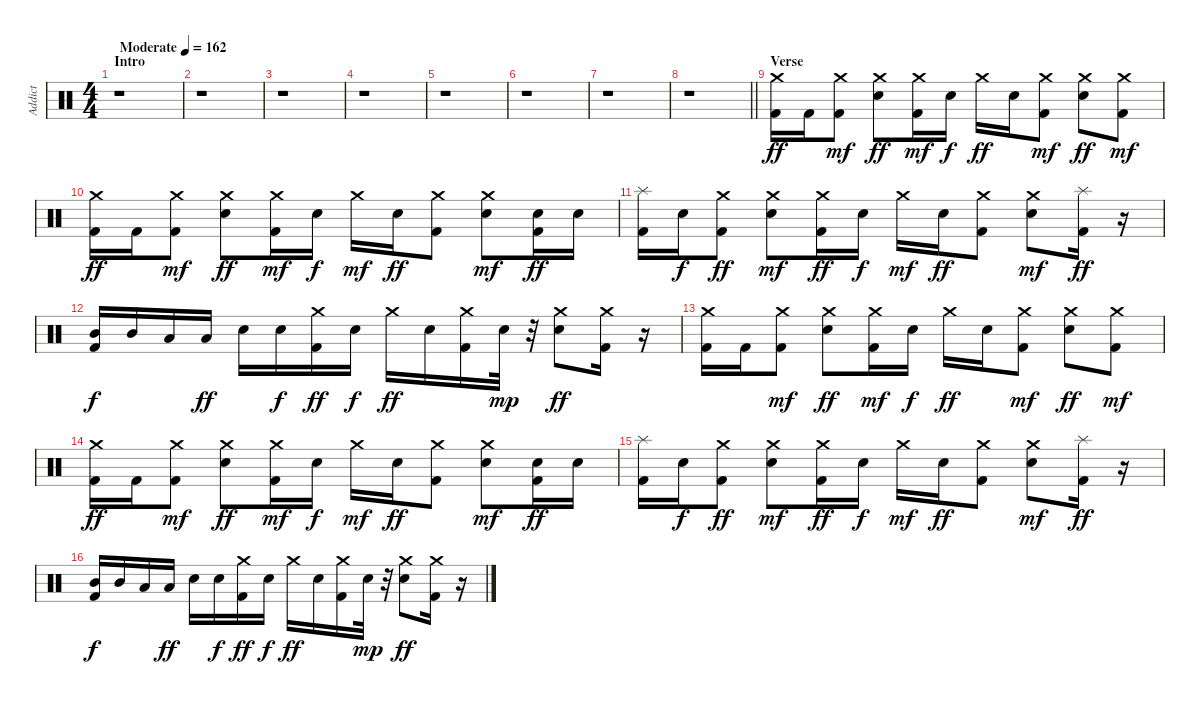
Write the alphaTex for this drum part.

\track ("Addict" "Addict") {instrument percussion}
\staff {score}
\articulation defaults
\ts (4 4)
\section ("" "Intro")
\tempo (162 "Moderate")
\clef neutral
\ks c
r.1{dy ff} |
r.1 |
r.1 |
r.1 |
r.1 |
r.1 |
r.1 |
\barLineRight lightlight
r.1 |
\section ("" "Verse")
("Kick (hit) 2" "Crash medium (hit)").16 "Kick (hit) 2".16 ("Kick (hit) 2" "Crash medium (hit)").8{dy mf} ("Snare (hit) 2" "Crash medium (hit)").8{dy ff} ("Kick (hit) 2" "Crash medium (hit)").16{dy mf} "Snare (hit) 2".16{dy f} "Crash medium (hit)".16{dy ff} "Snare (hit) 2".16 ("Kick (hit) 2" "Crash medium (hit)").8{dy mf} ("Snare (hit) 2" "Crash medium (hit)").8{dy ff} ("Kick (hit) 2" "Crash medium (hit)").8{dy mf} |
("Kick (hit) 2" "Crash medium (hit)").16{dy ff} "Kick (hit) 2".16 ("Kick (hit) 2" "Crash medium (hit)").8{dy mf} ("Snare (hit) 2" "Crash medium (hit)").8{dy ff} ("Kick (hit) 2" "Crash medium (hit)").16{dy mf} "Snare (hit) 2".16{dy f} "Crash medium (hit)".16{dy mf} "Snare (hit) 2".16{dy ff} ("Kick (hit) 2" "Crash medium (hit)").8 ("Snare (hit) 2" "Crash medium (hit)").8{dy mf} ("Kick (hit) 2" "Snare (hit) 2").16{dy ff} "Snare (hit) 2".16 |
("Kick (hit) 2" "Splash (hit)").16 "Snare (hit) 2".16{dy f} ("Kick (hit) 2" "Crash medium (hit)").8{dy ff} ("Snare (hit) 2" "Crash medium (hit)").8{dy mf} ("Kick (hit) 2" "Crash medium (hit)").16{dy ff} "Snare (hit) 2".16{dy f} "Crash medium (hit)".16{dy mf} "Snare (hit) 2".16{dy ff} ("Kick (hit) 2" "Crash medium (hit)").8 ("Snare (hit) 2" "Crash medium (hit)").8{dy mf} ("Kick (hit) 2" "Splash (hit)").16{dy ff} r.16 |
("Kick (hit) 2" "Mid Tom (hit)").16{dy f} "Mid Tom (hit)".16 "Low Tom (hit)".16 "Low Tom (hit)".16{dy ff} "Snare (hit) 2".16 "Snare (hit) 2".16{dy f} ("Kick (hit) 2" "Crash medium (hit)").16{dy ff} "Snare (hit) 2".16{dy f} "Crash medium (hit)".16{dy ff} "Snare (hit) 2".16 ("Kick (hit) 2" "Crash medium (hit)").16 "Snare (hit) 2".32{dy mp} r.32 ("Snare (hit) 2" "Crash medium (hit)").8{dy ff} ("Kick (hit) 2" "Crash medium (hit)").16 r.16 |
("Kick (hit) 2" "Crash medium (hit)").16 "Kick (hit) 2".16 ("Kick (hit) 2" "Crash medium (hit)").8{dy mf} ("Snare (hit) 2" "Crash medium (hit)").8{dy ff} ("Kick (hit) 2" "Crash medium (hit)").16{dy mf} "Snare (hit) 2".16{dy f} "Crash medium (hit)".16{dy ff} "Snare (hit) 2".16 ("Kick (hit) 2" "Crash medium (hit)").8{dy mf} ("Snare (hit) 2" "Crash medium (hit)").8{dy ff} ("Kick (hit) 2" "Crash medium (hit)").8{dy mf} |
("Kick (hit) 2" "Crash medium (hit)").16{dy ff} "Kick (hit) 2".16 ("Kick (hit) 2" "Crash medium (hit)").8{dy mf} ("Snare (hit) 2" "Crash medium (hit)").8{dy ff} ("Kick (hit) 2" "Crash medium (hit)").16{dy mf} "Snare (hit) 2".16{dy f} "Crash medium (hit)".16{dy mf} "Snare (hit) 2".16{dy ff} ("Kick (hit) 2" "Crash medium (hit)").8 ("Snare (hit) 2" "Crash medium (hit)").8{dy mf} ("Kick (hit) 2" "Snare (hit) 2").16{dy ff} "Snare (hit) 2".16 |
("Kick (hit) 2" "Splash (hit)").16 "Snare (hit) 2".16{dy f} ("Kick (hit) 2" "Crash medium (hit)").8{dy ff} ("Snare (hit) 2" "Crash medium (hit)").8{dy mf} ("Kick (hit) 2" "Crash medium (hit)").16{dy ff} "Snare (hit) 2".16{dy f} "Crash medium (hit)".16{dy mf} "Snare (hit) 2".16{dy ff} ("Kick (hit) 2" "Crash medium (hit)").8 ("Snare (hit) 2" "Crash medium (hit)").8{dy mf} ("Kick (hit) 2" "Splash (hit)").16{dy ff} r.16 |
("Kick (hit) 2" "Mid Tom (hit)").16{dy f} "Mid Tom (hit)".16 "Low Tom (hit)".16 "Low Tom (hit)".16{dy ff} "Snare (hit) 2".16 "Snare (hit) 2".16{dy f} ("Kick (hit) 2" "Crash medium (hit)").16{dy ff} "Snare (hit) 2".16{dy f} "Crash medium (hit)".16{dy ff} "Snare (hit) 2".16 ("Kick (hit) 2" "Crash medium (hit)").16 "Snare (hit) 2".32{dy mp} r.32 ("Snare (hit) 2" "Crash medium (hit)").8{dy ff} ("Kick (hit) 2" "Crash medium (hit)").16 r.16
